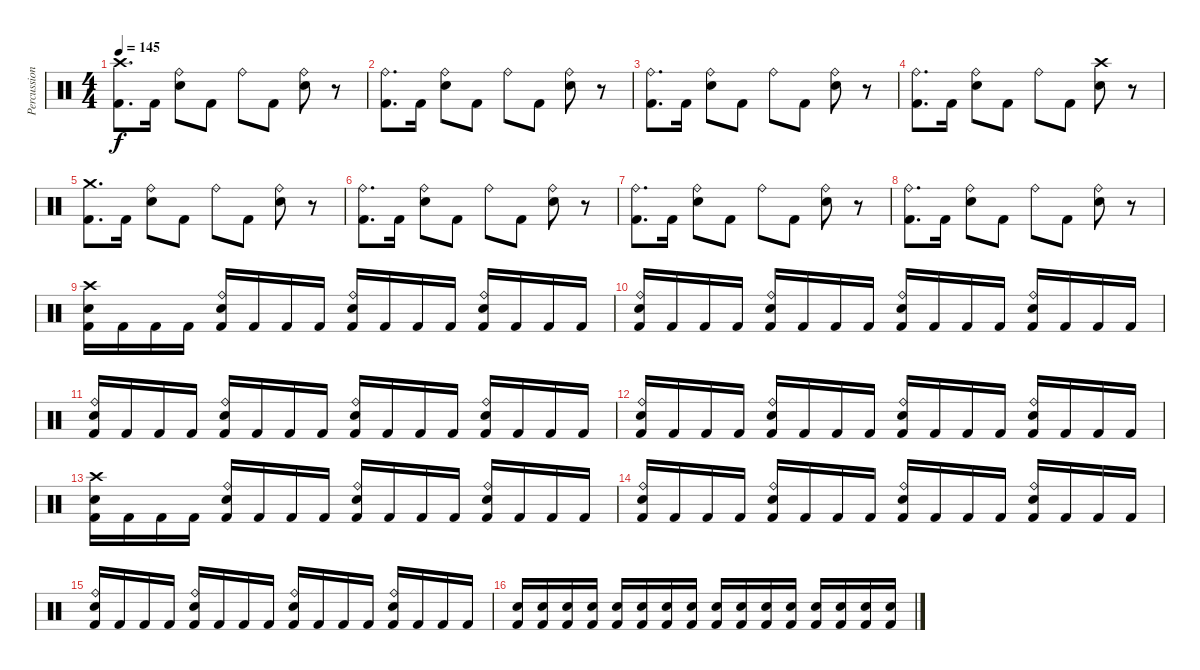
\track ("Percussion" "Percussion") {instrument percussion}
\staff {score}
\articulation defaults
\ts (4 4)
\tempo 145
\clef neutral
\ks c
("Crash high (hit)" "Kick (hit) 2").8{d dy f} "Kick (hit) 2".16 ("Ride (bell)" "Snare (hit) 2").8 "Kick (hit) 2".8 "Ride (bell)".8 "Kick (hit) 2".8 ("Ride (bell)" "Snare (hit) 2").8 r.8 |
("Ride (bell)" "Kick (hit) 2").8{d} "Kick (hit) 2".16 ("Ride (bell)" "Snare (hit) 2").8 "Kick (hit) 2".8 "Ride (bell)".8 "Kick (hit) 2".8 ("Ride (bell)" "Snare (hit) 2").8 r.8 |
("Ride (bell)" "Kick (hit) 2").8{d} "Kick (hit) 2".16 ("Ride (bell)" "Snare (hit) 2").8 "Kick (hit) 2".8 "Ride (bell)".8 "Kick (hit) 2".8 ("Ride (bell)" "Snare (hit) 2").8 r.8 |
("Ride (bell)" "Kick (hit) 2").8{d} "Kick (hit) 2".16 ("Ride (bell)" "Snare (hit) 2").8 "Kick (hit) 2".8 "Ride (bell)".8 "Kick (hit) 2".8 ("Crash high (hit)" "Snare (hit) 2").8 r.8 |
("Crash medium (hit)" "Kick (hit) 2").8{d} "Kick (hit) 2".16 ("Ride (bell)" "Snare (hit) 2").8 "Kick (hit) 2".8 "Ride (bell)".8 "Kick (hit) 2".8 ("Ride (bell)" "Snare (hit) 2").8 r.8 |
("Ride (bell)" "Kick (hit) 2").8{d} "Kick (hit) 2".16 ("Ride (bell)" "Snare (hit) 2").8 "Kick (hit) 2".8 "Ride (bell)".8 "Kick (hit) 2".8 ("Ride (bell)" "Snare (hit) 2").8 r.8 |
("Ride (bell)" "Kick (hit) 2").8{d} "Kick (hit) 2".16 ("Ride (bell)" "Snare (hit) 2").8 "Kick (hit) 2".8 "Ride (bell)".8 "Kick (hit) 2".8 ("Ride (bell)" "Snare (hit) 2").8 r.8 |
("Ride (bell)" "Kick (hit) 2").8{d} "Kick (hit) 2".16 ("Ride (bell)" "Snare (hit) 2").8 "Kick (hit) 2".8 "Ride (bell)".8 "Kick (hit) 2".8 ("Ride (bell)" "Snare (hit) 2").8 r.8 |
("Crash high (hit)" "Snare (hit) 2" "Kick (hit) 2").16 "Kick (hit) 2".16 "Kick (hit) 2".16 "Kick (hit) 2".16 ("Ride (bell)" "Snare (hit) 2" "Kick (hit) 2").16 "Kick (hit) 2".16 "Kick (hit) 2".16 "Kick (hit) 2".16 ("Ride (bell)" "Snare (hit) 2" "Kick (hit) 2").16 "Kick (hit) 2".16 "Kick (hit) 2".16 "Kick (hit) 2".16 ("Ride (bell)" "Snare (hit) 2" "Kick (hit) 2").16 "Kick (hit) 2".16 "Kick (hit) 2".16 "Kick (hit) 2".16 |
("Ride (bell)" "Snare (hit) 2" "Kick (hit) 2").16 "Kick (hit) 2".16 "Kick (hit) 2".16 "Kick (hit) 2".16 ("Ride (bell)" "Snare (hit) 2" "Kick (hit) 2").16 "Kick (hit) 2".16 "Kick (hit) 2".16 "Kick (hit) 2".16 ("Ride (bell)" "Snare (hit) 2" "Kick (hit) 2").16 "Kick (hit) 2".16 "Kick (hit) 2".16 "Kick (hit) 2".16 ("Ride (bell)" "Snare (hit) 2" "Kick (hit) 2").16 "Kick (hit) 2".16 "Kick (hit) 2".16 "Kick (hit) 2".16 |
("Ride (bell)" "Snare (hit) 2" "Kick (hit) 2").16 "Kick (hit) 2".16 "Kick (hit) 2".16 "Kick (hit) 2".16 ("Ride (bell)" "Snare (hit) 2" "Kick (hit) 2").16 "Kick (hit) 2".16 "Kick (hit) 2".16 "Kick (hit) 2".16 ("Ride (bell)" "Snare (hit) 2" "Kick (hit) 2").16 "Kick (hit) 2".16 "Kick (hit) 2".16 "Kick (hit) 2".16 ("Ride (bell)" "Snare (hit) 2" "Kick (hit) 2").16 "Kick (hit) 2".16 "Kick (hit) 2".16 "Kick (hit) 2".16 |
("Ride (bell)" "Snare (hit) 2" "Kick (hit) 2").16 "Kick (hit) 2".16 "Kick (hit) 2".16 "Kick (hit) 2".16 ("Ride (bell)" "Snare (hit) 2" "Kick (hit) 2").16 "Kick (hit) 2".16 "Kick (hit) 2".16 "Kick (hit) 2".16 ("Ride (bell)" "Snare (hit) 2" "Kick (hit) 2").16 "Kick (hit) 2".16 "Kick (hit) 2".16 "Kick (hit) 2".16 ("Ride (bell)" "Snare (hit) 2" "Kick (hit) 2").16 "Kick (hit) 2".16 "Kick (hit) 2".16 "Kick (hit) 2".16 |
("Crash high (hit)" "Snare (hit) 2" "Kick (hit) 2").16 "Kick (hit) 2".16 "Kick (hit) 2".16 "Kick (hit) 2".16 ("Ride (bell)" "Snare (hit) 2" "Kick (hit) 2").16 "Kick (hit) 2".16 "Kick (hit) 2".16 "Kick (hit) 2".16 ("Ride (bell)" "Snare (hit) 2" "Kick (hit) 2").16 "Kick (hit) 2".16 "Kick (hit) 2".16 "Kick (hit) 2".16 ("Ride (bell)" "Snare (hit) 2" "Kick (hit) 2").16 "Kick (hit) 2".16 "Kick (hit) 2".16 "Kick (hit) 2".16 |
("Ride (bell)" "Snare (hit) 2" "Kick (hit) 2").16 "Kick (hit) 2".16 "Kick (hit) 2".16 "Kick (hit) 2".16 ("Ride (bell)" "Snare (hit) 2" "Kick (hit) 2").16 "Kick (hit) 2".16 "Kick (hit) 2".16 "Kick (hit) 2".16 ("Ride (bell)" "Snare (hit) 2" "Kick (hit) 2").16 "Kick (hit) 2".16 "Kick (hit) 2".16 "Kick (hit) 2".16 ("Ride (bell)" "Snare (hit) 2" "Kick (hit) 2").16 "Kick (hit) 2".16 "Kick (hit) 2".16 "Kick (hit) 2".16 |
("Ride (bell)" "Snare (hit) 2" "Kick (hit) 2").16 "Kick (hit) 2".16 "Kick (hit) 2".16 "Kick (hit) 2".16 ("Ride (bell)" "Snare (hit) 2" "Kick (hit) 2").16 "Kick (hit) 2".16 "Kick (hit) 2".16 "Kick (hit) 2".16 ("Ride (bell)" "Snare (hit) 2" "Kick (hit) 2").16 "Kick (hit) 2".16 "Kick (hit) 2".16 "Kick (hit) 2".16 ("Ride (bell)" "Snare (hit) 2" "Kick (hit) 2").16 "Kick (hit) 2".16 "Kick (hit) 2".16 "Kick (hit) 2".16 |
("Snare (hit) 2" "Kick (hit) 2").16 ("Snare (hit) 2" "Kick (hit) 2").16 ("Snare (hit) 2" "Kick (hit) 2").16 ("Snare (hit) 2" "Kick (hit) 2").16 ("Snare (hit) 2" "Kick (hit) 2").16 ("Snare (hit) 2" "Kick (hit) 2").16 ("Snare (hit) 2" "Kick (hit) 2").16 ("Snare (hit) 2" "Kick (hit) 2").16 ("Snare (hit) 2" "Kick (hit) 2").16 ("Snare (hit) 2" "Kick (hit) 2").16 ("Snare (hit) 2" "Kick (hit) 2").16 ("Snare (hit) 2" "Kick (hit) 2").16 ("Snare (hit) 2" "Kick (hit) 2").16 ("Snare (hit) 2" "Kick (hit) 2").16 ("Snare (hit) 2" "Kick (hit) 2").16 ("Snare (hit) 2" "Kick (hit) 2").16
